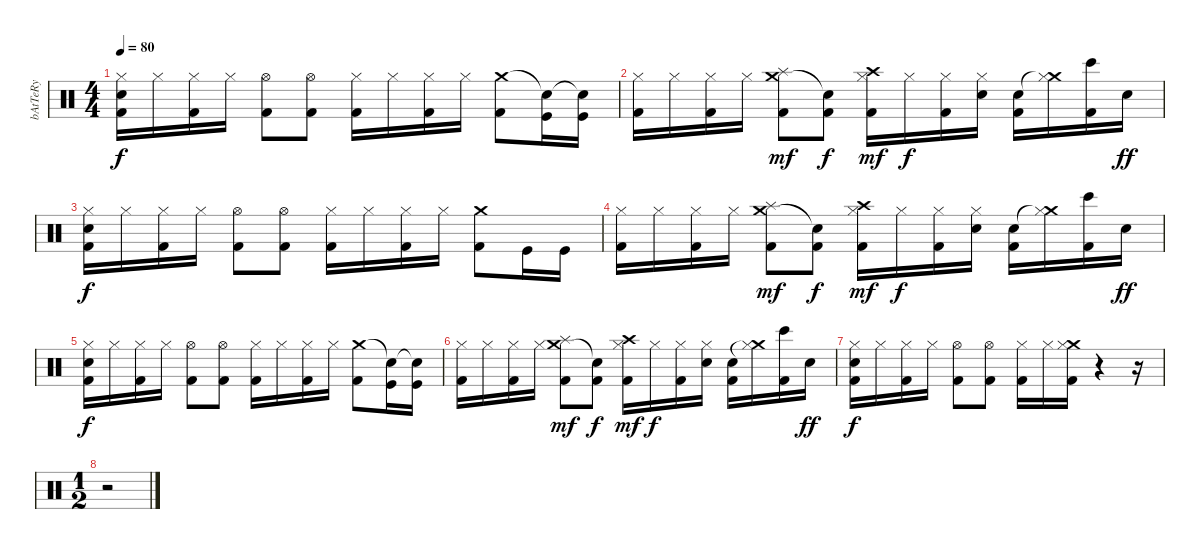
\track ("bAtTeRy" "bAtTeRy") {instrument percussion}
\staff {score}
\articulation defaults
\ts (4 4)
\tempo 80
\clef neutral
\ks c
("Snare (hit) 2" "Hi-Hat (closed)" "Kick (hit) 2").16{dy f} "Hi-Hat (closed)".16 ("Hi-Hat (closed)" "Kick (hit) 2").16 "Hi-Hat (closed)".16 ("Hi-Hat (open)" "Kick (hit) 2").8 ("Hi-Hat (open)" "Kick (hit) 2").8 ("Hi-Hat (closed)" "Kick (hit) 2").16 "Hi-Hat (closed)".16 ("Hi-Hat (closed)" "Kick (hit) 2").16 "Hi-Hat (closed)".16 ("Crash medium (hit)" "Kick (hit) 2").8 ("Snare (hit)"{t} "Kick (hit)").16 ("Snare (hit)"{t} "Kick (hit)").16 |
("Hi-Hat (closed)" "Kick (hit) 2").16 "Hi-Hat (closed)".16 ("Hi-Hat (closed)" "Kick (hit) 2").16 "Hi-Hat (closed)".16 ("Crash medium (hit)" "Splash (hit)" "Kick (hit) 2").8{dy mf} ("Snare (hit)"{t} "Kick (hit) 2").8{dy f} ("Crash high (hit)" "Hi-Hat (closed)" "Kick (hit) 2").16{dy mf} "Hi-Hat (closed)".16{dy f} ("Hi-Hat (closed)" "Kick (hit) 2").16 ("Snare (hit) 2" "Hi-Hat (closed)").16 ("Snare (hit) 2" "Kick (hit) 2").16 ("Crash medium (hit)"{t} "Hi-Hat (closed)").16 ("Bongo High (hit)" "Kick (hit) 2").16 "Electric Snare (hit)".16{dy ff} |
("Snare (hit) 2" "Hi-Hat (closed)" "Kick (hit) 2").16{dy f} "Hi-Hat (closed)".16 ("Hi-Hat (closed)" "Kick (hit) 2").16 "Hi-Hat (closed)".16 ("Hi-Hat (open)" "Kick (hit) 2").8 ("Hi-Hat (open)" "Kick (hit) 2").8 ("Hi-Hat (closed)" "Kick (hit) 2").16 "Hi-Hat (closed)".16 ("Hi-Hat (closed)" "Kick (hit) 2").16 "Hi-Hat (closed)".16 ("Crash medium (hit)" "Kick (hit) 2").8 "Kick (hit)".16 "Kick (hit)".16 |
("Hi-Hat (closed)" "Kick (hit) 2").16 "Hi-Hat (closed)".16 ("Hi-Hat (closed)" "Kick (hit) 2").16 "Hi-Hat (closed)".16 ("Crash medium (hit)" "Splash (hit)" "Kick (hit) 2").8{dy mf} ("Snare (hit)"{t} "Kick (hit) 2").8{dy f} ("Crash high (hit)" "Hi-Hat (closed)" "Kick (hit) 2").16{dy mf} "Hi-Hat (closed)".16{dy f} ("Hi-Hat (closed)" "Kick (hit) 2").16 ("Snare (hit) 2" "Hi-Hat (closed)").16 ("Snare (hit) 2" "Kick (hit) 2").16 ("Crash medium (hit)"{t} "Hi-Hat (closed)").16 ("Bongo High (hit)" "Kick (hit) 2").16 "Electric Snare (hit)".16{dy ff} |
("Snare (hit) 2" "Hi-Hat (closed)" "Kick (hit) 2").16{dy f} "Hi-Hat (closed)".16 ("Hi-Hat (closed)" "Kick (hit) 2").16 "Hi-Hat (closed)".16 ("Hi-Hat (open)" "Kick (hit) 2").8 ("Hi-Hat (open)" "Kick (hit) 2").8 ("Hi-Hat (closed)" "Kick (hit) 2").16 "Hi-Hat (closed)".16 ("Hi-Hat (closed)" "Kick (hit) 2").16 "Hi-Hat (closed)".16 ("Crash medium (hit)" "Kick (hit) 2").8 ("Snare (hit)"{t} "Kick (hit)").16 ("Snare (hit)"{t} "Kick (hit)").16 |
("Hi-Hat (closed)" "Kick (hit) 2").16 "Hi-Hat (closed)".16 ("Hi-Hat (closed)" "Kick (hit) 2").16 "Hi-Hat (closed)".16 ("Crash medium (hit)" "Splash (hit)" "Kick (hit) 2").8{dy mf} ("Snare (hit)"{t} "Kick (hit) 2").8{dy f} ("Crash high (hit)" "Hi-Hat (closed)" "Kick (hit) 2").16{dy mf} "Hi-Hat (closed)".16{dy f} ("Hi-Hat (closed)" "Kick (hit) 2").16 ("Snare (hit) 2" "Hi-Hat (closed)").16 ("Snare (hit) 2" "Kick (hit) 2").16 ("Crash medium (hit)"{t} "Hi-Hat (closed)").16 ("Bongo High (hit)" "Kick (hit) 2").16 "Electric Snare (hit)".16{dy ff} |
("Snare (hit) 2" "Hi-Hat (closed)" "Kick (hit) 2").16{dy f} "Hi-Hat (closed)".16 ("Hi-Hat (closed)" "Kick (hit) 2").16 "Hi-Hat (closed)".16 ("Hi-Hat (open)" "Kick (hit) 2").8 ("Hi-Hat (open)" "Kick (hit) 2").8 ("Hi-Hat (closed)" "Kick (hit) 2").16 "Hi-Hat (closed)".16 ("Crash medium (hit)" "Hi-Hat (closed)" "Kick (hit) 2").16 r.4 r.16 |
\ts (1 2)
r.2
